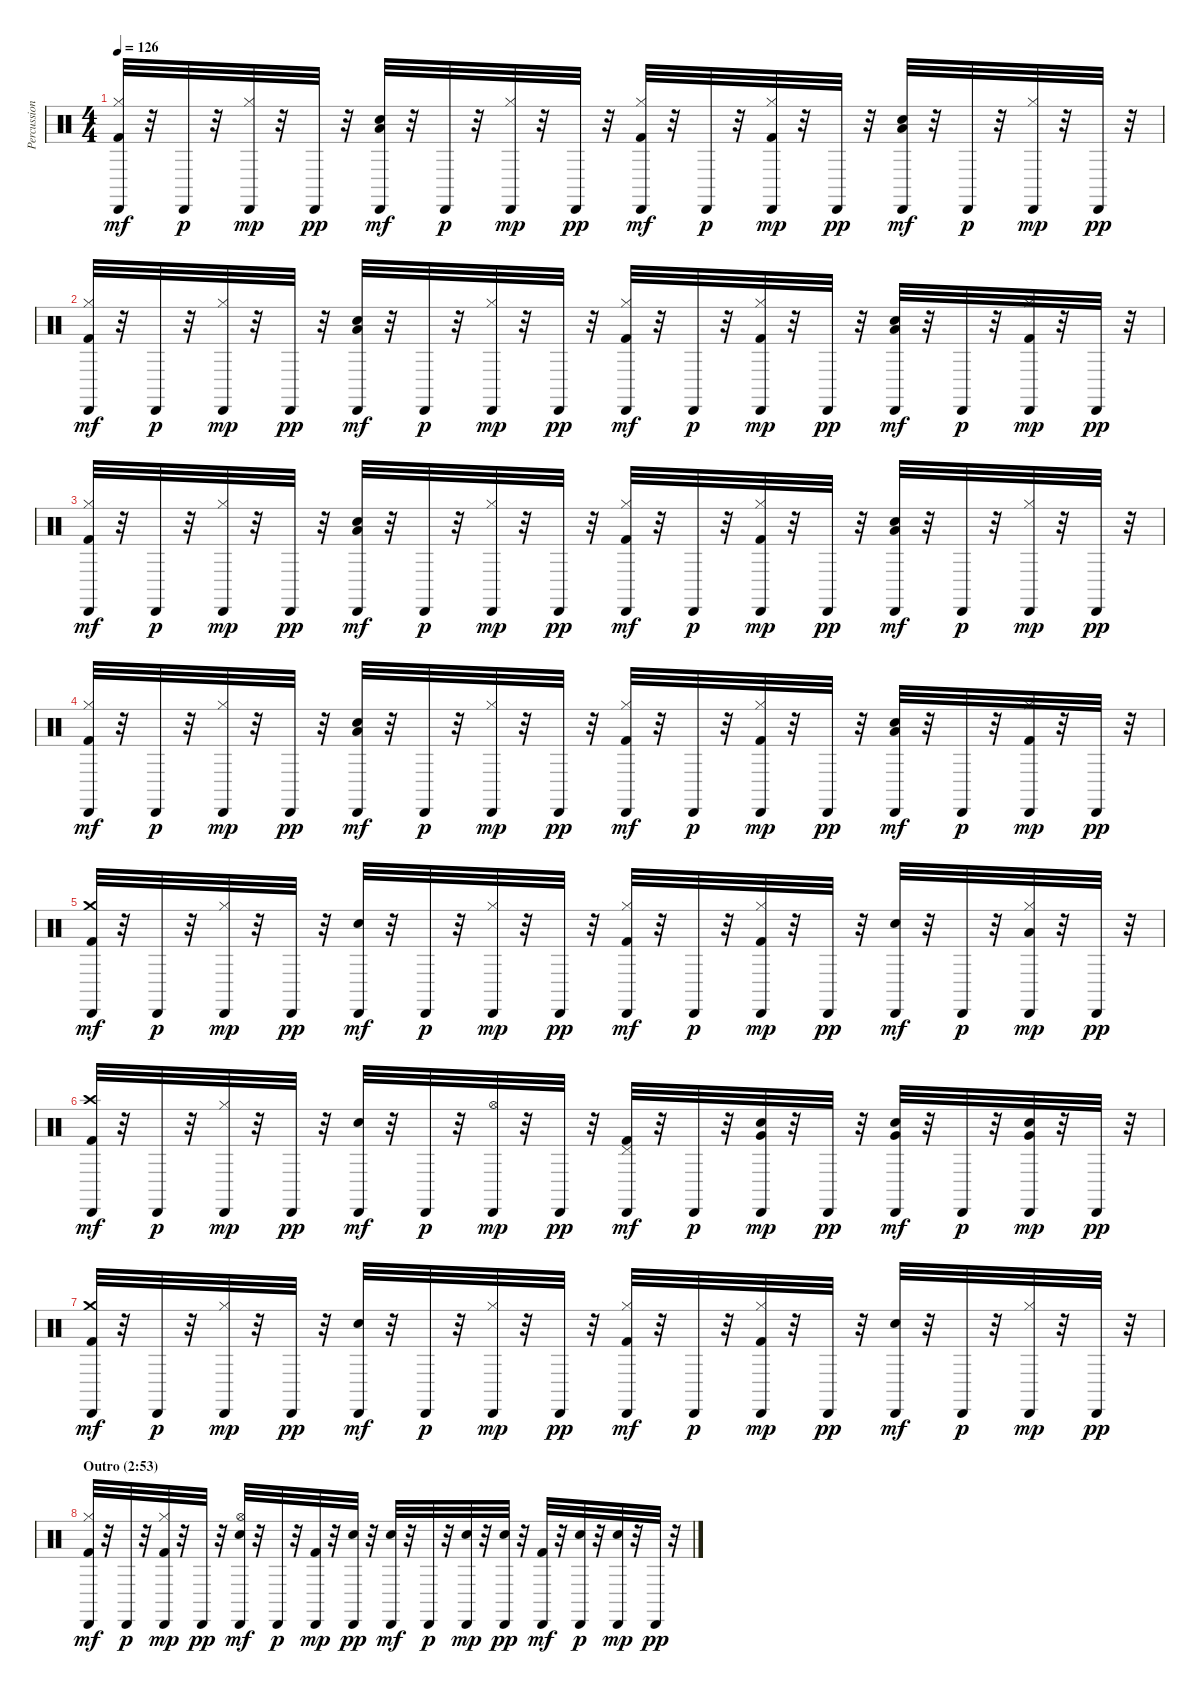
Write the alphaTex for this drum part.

\track ("Percussions" "Percussion") {instrument percussion}
\staff {score}
\articulation defaults
\ts (4 4)
\tempo 126
\clef neutral
\ks c
("Kick (hit) 2" "Hi-Hat (closed)" "Cabasa (hit)").32{dy mf} r.32 "Cabasa (hit)".32{dy p} r.32 ("Hi-Hat (closed)" "Cabasa (hit)").32{dy mp} r.32 "Cabasa (hit)".32{dy pp} r.32 ("Electric Snare (hit)" "Low Tom (hit)" "Cabasa (hit)").32{dy mf} r.32 "Cabasa (hit)".32{dy p} r.32 ("Hi-Hat (closed)" "Cabasa (hit)").32{dy mp} r.32 "Cabasa (hit)".32{dy pp} r.32 ("Kick (hit) 2" "Hi-Hat (closed)" "Cabasa (hit)").32{dy mf} r.32 "Cabasa (hit)".32{dy p} r.32 ("Kick (hit) 2" "Hi-Hat (closed)" "Cabasa (hit)").32{dy mp} r.32 "Cabasa (hit)".32{dy pp} r.32 ("Electric Snare (hit)" "Low Tom (hit)" "Cabasa (hit)").32{dy mf} r.32 "Cabasa (hit)".32{dy p} r.32 ("Hi-Hat (closed)" "Cabasa (hit)").32{dy mp} r.32 "Cabasa (hit)".32{dy pp} r.32 |
("Kick (hit) 2" "Hi-Hat (closed)" "Cabasa (hit)").32{dy mf} r.32 "Cabasa (hit)".32{dy p} r.32 ("Hi-Hat (closed)" "Cabasa (hit)").32{dy mp} r.32 "Cabasa (hit)".32{dy pp} r.32 ("Electric Snare (hit)" "Low Tom (hit)" "Cabasa (hit)").32{dy mf} r.32 "Cabasa (hit)".32{dy p} r.32 ("Hi-Hat (closed)" "Cabasa (hit)").32{dy mp} r.32 "Cabasa (hit)".32{dy pp} r.32 ("Kick (hit) 2" "Hi-Hat (closed)" "Cabasa (hit)").32{dy mf} r.32 "Cabasa (hit)".32{dy p} r.32 ("Kick (hit) 2" "Hi-Hat (closed)" "Cabasa (hit)").32{dy mp} r.32 "Cabasa (hit)".32{dy pp} r.32 ("Electric Snare (hit)" "Low Tom (hit)" "Cabasa (hit)").32{dy mf} r.32 "Cabasa (hit)".32{dy p} r.32 ("Kick (hit) 2" "Hi-Hat (closed)" "Cabasa (hit)").32{dy mp} r.32 "Cabasa (hit)".32{dy pp} r.32 |
("Kick (hit) 2" "Hi-Hat (closed)" "Cabasa (hit)").32{dy mf} r.32 "Cabasa (hit)".32{dy p} r.32 ("Hi-Hat (closed)" "Cabasa (hit)").32{dy mp} r.32 "Cabasa (hit)".32{dy pp} r.32 ("Electric Snare (hit)" "Low Tom (hit)" "Cabasa (hit)").32{dy mf} r.32 "Cabasa (hit)".32{dy p} r.32 ("Hi-Hat (closed)" "Cabasa (hit)").32{dy mp} r.32 "Cabasa (hit)".32{dy pp} r.32 ("Kick (hit) 2" "Hi-Hat (closed)" "Cabasa (hit)").32{dy mf} r.32 "Cabasa (hit)".32{dy p} r.32 ("Kick (hit) 2" "Hi-Hat (closed)" "Cabasa (hit)").32{dy mp} r.32 "Cabasa (hit)".32{dy pp} r.32 ("Electric Snare (hit)" "Low Tom (hit)" "Cabasa (hit)").32{dy mf} r.32 "Cabasa (hit)".32{dy p} r.32 ("Hi-Hat (closed)" "Cabasa (hit)").32{dy mp} r.32 "Cabasa (hit)".32{dy pp} r.32 |
("Kick (hit) 2" "Hi-Hat (closed)" "Cabasa (hit)").32{dy mf} r.32 "Cabasa (hit)".32{dy p} r.32 ("Hi-Hat (closed)" "Cabasa (hit)").32{dy mp} r.32 "Cabasa (hit)".32{dy pp} r.32 ("Electric Snare (hit)" "Low Tom (hit)" "Cabasa (hit)").32{dy mf} r.32 "Cabasa (hit)".32{dy p} r.32 ("Hi-Hat (closed)" "Cabasa (hit)").32{dy mp} r.32 "Cabasa (hit)".32{dy pp} r.32 ("Kick (hit) 2" "Hi-Hat (closed)" "Cabasa (hit)").32{dy mf} r.32 "Cabasa (hit)".32{dy p} r.32 ("Kick (hit) 2" "Hi-Hat (closed)" "Cabasa (hit)").32{dy mp} r.32 "Cabasa (hit)".32{dy pp} r.32 ("Electric Snare (hit)" "Low Tom (hit)" "Cabasa (hit)").32{dy mf} r.32 "Cabasa (hit)".32{dy p} r.32 ("Kick (hit) 2" "Hi-Hat (closed)" "Cabasa (hit)").32{dy mp} r.32 "Cabasa (hit)".32{dy pp} r.32 |
("Kick (hit) 2" "Crash medium (hit)" "Cabasa (hit)").32{dy mf} r.32 "Cabasa (hit)".32{dy p} r.32 ("Hi-Hat (closed)" "Cabasa (hit)").32{dy mp} r.32 "Cabasa (hit)".32{dy pp} r.32 ("Electric Snare (hit)" "Cabasa (hit)").32{dy mf} r.32 "Cabasa (hit)".32{dy p} r.32 ("Hi-Hat (closed)" "Cabasa (hit)").32{dy mp} r.32 "Cabasa (hit)".32{dy pp} r.32 ("Kick (hit) 2" "Hi-Hat (closed)" "Cabasa (hit)").32{dy mf} r.32 "Cabasa (hit)".32{dy p} r.32 ("Kick (hit) 2" "Hi-Hat (closed)" "Cabasa (hit)").32{dy mp} r.32 "Cabasa (hit)".32{dy pp} r.32 ("Electric Snare (hit)" "Cabasa (hit)").32{dy mf} r.32 "Cabasa (hit)".32{dy p} r.32 ("Hi-Hat (closed)" "Low Tom (hit)" "Cabasa (hit)").32{dy mp} r.32 "Cabasa (hit)".32{dy pp} r.32 |
("Kick (hit) 2" "Crash high (hit)" "Cabasa (hit)").32{dy mf} r.32 "Cabasa (hit)".32{dy p} r.32 ("Hi-Hat (closed)" "Cabasa (hit)").32{dy mp} r.32 "Cabasa (hit)".32{dy pp} r.32 ("Electric Snare (hit)" "Cabasa (hit)").32{dy mf} r.32 "Cabasa (hit)".32{dy p} r.32 ("Hi-Hat (open)" "Cabasa (hit)").32{dy mp} r.32 "Cabasa (hit)".32{dy pp} r.32 ("Kick (hit) 2" "Pedal Hi-Hat (hit)" "Cabasa (hit)").32{dy mf} r.32 "Cabasa (hit)".32{dy p} r.32 ("Electric Snare (hit)" "Very Low Tom (hit)" "Cabasa (hit)").32{dy mp} r.32 "Cabasa (hit)".32{dy pp} r.32 ("Electric Snare (hit)" "Very Low Tom (hit)" "Cabasa (hit)").32{dy mf} r.32 "Cabasa (hit)".32{dy p} r.32 ("Electric Snare (hit)" "Very Low Tom (hit)" "Cabasa (hit)").32{dy mp} r.32 "Cabasa (hit)".32{dy pp} r.32 |
("Kick (hit) 2" "Crash medium (hit)" "Cabasa (hit)").32{dy mf} r.32 "Cabasa (hit)".32{dy p} r.32 ("Hi-Hat (closed)" "Cabasa (hit)").32{dy mp} r.32 "Cabasa (hit)".32{dy pp} r.32 ("Electric Snare (hit)" "Cabasa (hit)").32{dy mf} r.32 "Cabasa (hit)".32{dy p} r.32 ("Hi-Hat (closed)" "Cabasa (hit)").32{dy mp} r.32 "Cabasa (hit)".32{dy pp} r.32 ("Kick (hit) 2" "Hi-Hat (closed)" "Cabasa (hit)").32{dy mf} r.32 "Cabasa (hit)".32{dy p} r.32 ("Kick (hit) 2" "Hi-Hat (closed)" "Cabasa (hit)").32{dy mp} r.32 "Cabasa (hit)".32{dy pp} r.32 ("Electric Snare (hit)" "Cabasa (hit)").32{dy mf} r.32 "Cabasa (hit)".32{dy p} r.32 ("Hi-Hat (closed)" "Cabasa (hit)").32{dy mp} r.32 "Cabasa (hit)".32{dy pp} r.32 |
\section ("" "Outro (2:53)")
("Kick (hit) 2" "Hi-Hat (closed)" "Cabasa (hit)").32{dy mf} r.32 "Cabasa (hit)".32{dy p} r.32 ("Kick (hit) 2" "Hi-Hat (closed)" "Cabasa (hit)").32{dy mp} r.32 "Cabasa (hit)".32{dy pp} r.32 ("Electric Snare (hit)" "Hi-Hat (open)" "Cabasa (hit)").32{dy mf} r.32 "Cabasa (hit)".32{dy p} r.32 ("Kick (hit) 2" "Cabasa (hit)").32{dy mp} r.32 ("Electric Snare (hit)" "Cabasa (hit)").32{dy pp} r.32 ("Electric Snare (hit)" "Cabasa (hit)").32{dy mf} r.32 "Cabasa (hit)".32{dy p} r.32 ("Electric Snare (hit)" "Cabasa (hit)").32{dy mp} r.32 ("Electric Snare (hit)" "Cabasa (hit)").32{dy pp} r.32 ("Kick (hit) 2" "Cabasa (hit)").32{dy mf} r.32 ("Electric Snare (hit)" "Cabasa (hit)").32{dy p} r.32 ("Electric Snare (hit)" "Cabasa (hit)").32{dy mp} r.32 "Cabasa (hit)".32{dy pp} r.32
